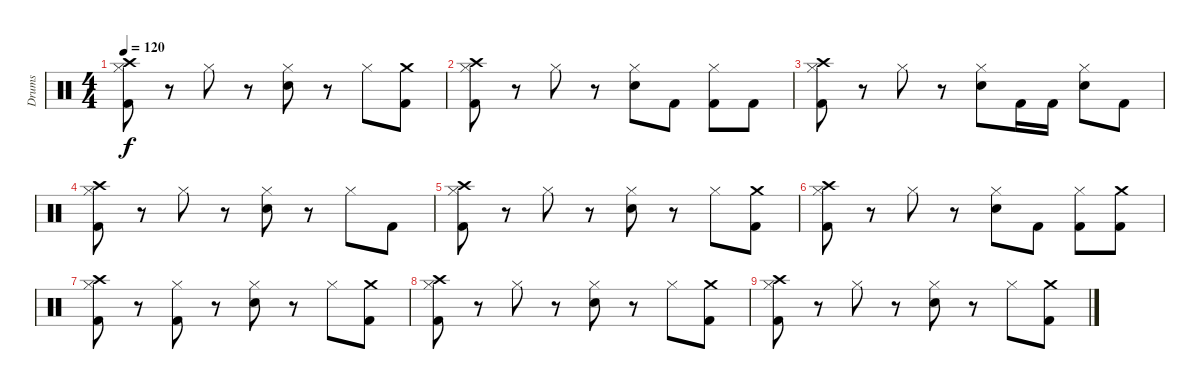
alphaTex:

\track ("Drums" "Drums") {instrument percussion}
\staff {score}
\articulation defaults
\ts (4 4)
\tempo 120
\clef neutral
\ks c
("Hi-Hat (closed)" "Kick (hit) 2" "Crash high (hit)").8{dy f} r.8 "Hi-Hat (closed)".8 r.8 ("Hi-Hat (closed)" "Snare (hit) 2").8 r.8 "Hi-Hat (closed)".8 ("Kick (hit) 2" "Crash medium (hit)").8 |
("Hi-Hat (closed)" "Kick (hit) 2" "Crash high (hit)").8 r.8 "Hi-Hat (closed)".8 r.8 ("Hi-Hat (closed)" "Snare (hit) 2").8 "Kick (hit) 2".8 ("Hi-Hat (closed)" "Kick (hit) 2").8 "Kick (hit) 2".8 |
("Hi-Hat (closed)" "Kick (hit) 2" "Crash high (hit)").8 r.8 "Hi-Hat (closed)".8 r.8 ("Hi-Hat (closed)" "Snare (hit) 2").8 "Kick (hit) 2".16 "Kick (hit) 2".16 ("Hi-Hat (closed)" "Snare (hit) 2").8 "Kick (hit) 2".8 |
("Hi-Hat (closed)" "Kick (hit) 2" "Crash high (hit)").8 r.8 "Hi-Hat (closed)".8 r.8 ("Hi-Hat (closed)" "Snare (hit) 2").8 r.8 "Hi-Hat (closed)".8 "Kick (hit) 2".8 |
("Hi-Hat (closed)" "Kick (hit) 2" "Crash high (hit)").8 r.8 "Hi-Hat (closed)".8 r.8 ("Hi-Hat (closed)" "Snare (hit) 2").8 r.8 "Hi-Hat (closed)".8 ("Kick (hit) 2" "Crash medium (hit)").8 |
("Hi-Hat (closed)" "Kick (hit) 2" "Crash high (hit)").8 r.8 "Hi-Hat (closed)".8 r.8 ("Hi-Hat (closed)" "Snare (hit) 2").8 "Kick (hit) 2".8 ("Hi-Hat (closed)" "Kick (hit) 2").8 ("Kick (hit) 2" "Crash medium (hit)").8 |
("Hi-Hat (closed)" "Kick (hit) 2" "Crash high (hit)").8 r.8 ("Hi-Hat (closed)" "Kick (hit) 2").8 r.8 ("Hi-Hat (closed)" "Snare (hit) 2").8 r.8 "Hi-Hat (closed)".8 ("Kick (hit) 2" "Crash medium (hit)").8 |
("Hi-Hat (closed)" "Kick (hit) 2" "Crash high (hit)").8 r.8 "Hi-Hat (closed)".8 r.8 ("Hi-Hat (closed)" "Snare (hit) 2").8 r.8 "Hi-Hat (closed)".8 ("Kick (hit) 2" "Crash medium (hit)").8 |
("Hi-Hat (closed)" "Kick (hit) 2" "Crash high (hit)").8 r.8 "Hi-Hat (closed)".8 r.8 ("Hi-Hat (closed)" "Snare (hit) 2").8 r.8 "Hi-Hat (closed)".8 ("Kick (hit) 2" "Crash medium (hit)").8
